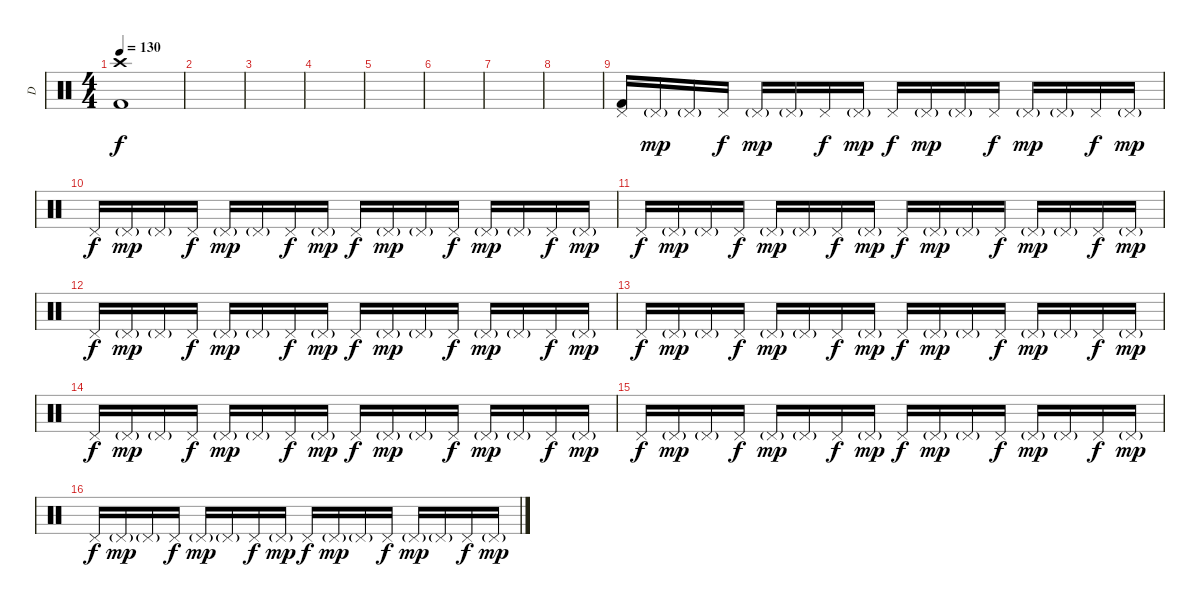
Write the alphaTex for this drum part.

\track ("D" "D") {instrument percussion}
\staff {score}
\articulation defaults
\ts (4 4)
\tempo 130
\clef neutral
\ks c
("Crash high (hit)" "Kick (hit) 2").1{dy f} |
|
|
|
|
|
|
|
("Kick (hit) 2" "Pedal Hi-Hat (hit)").16 "Pedal Hi-Hat (hit)"{g}.16{dy mp} "Pedal Hi-Hat (hit)"{g}.16 "Pedal Hi-Hat (hit)".16{dy f} "Pedal Hi-Hat (hit)"{g}.16{dy mp} "Pedal Hi-Hat (hit)"{g}.16 "Pedal Hi-Hat (hit)".16{dy f} "Pedal Hi-Hat (hit)"{g}.16{dy mp} "Pedal Hi-Hat (hit)".16{dy f} "Pedal Hi-Hat (hit)"{g}.16{dy mp} "Pedal Hi-Hat (hit)"{g}.16 "Pedal Hi-Hat (hit)".16{dy f} "Pedal Hi-Hat (hit)"{g}.16{dy mp} "Pedal Hi-Hat (hit)"{g}.16 "Pedal Hi-Hat (hit)".16{dy f} "Pedal Hi-Hat (hit)"{g}.16{dy mp} |
"Pedal Hi-Hat (hit)".16{dy f} "Pedal Hi-Hat (hit)"{g}.16{dy mp} "Pedal Hi-Hat (hit)"{g}.16 "Pedal Hi-Hat (hit)".16{dy f} "Pedal Hi-Hat (hit)"{g}.16{dy mp} "Pedal Hi-Hat (hit)"{g}.16 "Pedal Hi-Hat (hit)".16{dy f} "Pedal Hi-Hat (hit)"{g}.16{dy mp} "Pedal Hi-Hat (hit)".16{dy f} "Pedal Hi-Hat (hit)"{g}.16{dy mp} "Pedal Hi-Hat (hit)"{g}.16 "Pedal Hi-Hat (hit)".16{dy f} "Pedal Hi-Hat (hit)"{g}.16{dy mp} "Pedal Hi-Hat (hit)"{g}.16 "Pedal Hi-Hat (hit)".16{dy f} "Pedal Hi-Hat (hit)"{g}.16{dy mp} |
"Pedal Hi-Hat (hit)".16{dy f} "Pedal Hi-Hat (hit)"{g}.16{dy mp} "Pedal Hi-Hat (hit)"{g}.16 "Pedal Hi-Hat (hit)".16{dy f} "Pedal Hi-Hat (hit)"{g}.16{dy mp} "Pedal Hi-Hat (hit)"{g}.16 "Pedal Hi-Hat (hit)".16{dy f} "Pedal Hi-Hat (hit)"{g}.16{dy mp} "Pedal Hi-Hat (hit)".16{dy f} "Pedal Hi-Hat (hit)"{g}.16{dy mp} "Pedal Hi-Hat (hit)"{g}.16 "Pedal Hi-Hat (hit)".16{dy f} "Pedal Hi-Hat (hit)"{g}.16{dy mp} "Pedal Hi-Hat (hit)"{g}.16 "Pedal Hi-Hat (hit)".16{dy f} "Pedal Hi-Hat (hit)"{g}.16{dy mp} |
"Pedal Hi-Hat (hit)".16{dy f} "Pedal Hi-Hat (hit)"{g}.16{dy mp} "Pedal Hi-Hat (hit)"{g}.16 "Pedal Hi-Hat (hit)".16{dy f} "Pedal Hi-Hat (hit)"{g}.16{dy mp} "Pedal Hi-Hat (hit)"{g}.16 "Pedal Hi-Hat (hit)".16{dy f} "Pedal Hi-Hat (hit)"{g}.16{dy mp} "Pedal Hi-Hat (hit)".16{dy f} "Pedal Hi-Hat (hit)"{g}.16{dy mp} "Pedal Hi-Hat (hit)"{g}.16 "Pedal Hi-Hat (hit)".16{dy f} "Pedal Hi-Hat (hit)"{g}.16{dy mp} "Pedal Hi-Hat (hit)"{g}.16 "Pedal Hi-Hat (hit)".16{dy f} "Pedal Hi-Hat (hit)"{g}.16{dy mp} |
"Pedal Hi-Hat (hit)".16{dy f} "Pedal Hi-Hat (hit)"{g}.16{dy mp} "Pedal Hi-Hat (hit)"{g}.16 "Pedal Hi-Hat (hit)".16{dy f} "Pedal Hi-Hat (hit)"{g}.16{dy mp} "Pedal Hi-Hat (hit)"{g}.16 "Pedal Hi-Hat (hit)".16{dy f} "Pedal Hi-Hat (hit)"{g}.16{dy mp} "Pedal Hi-Hat (hit)".16{dy f} "Pedal Hi-Hat (hit)"{g}.16{dy mp} "Pedal Hi-Hat (hit)"{g}.16 "Pedal Hi-Hat (hit)".16{dy f} "Pedal Hi-Hat (hit)"{g}.16{dy mp} "Pedal Hi-Hat (hit)"{g}.16 "Pedal Hi-Hat (hit)".16{dy f} "Pedal Hi-Hat (hit)"{g}.16{dy mp} |
"Pedal Hi-Hat (hit)".16{dy f} "Pedal Hi-Hat (hit)"{g}.16{dy mp} "Pedal Hi-Hat (hit)"{g}.16 "Pedal Hi-Hat (hit)".16{dy f} "Pedal Hi-Hat (hit)"{g}.16{dy mp} "Pedal Hi-Hat (hit)"{g}.16 "Pedal Hi-Hat (hit)".16{dy f} "Pedal Hi-Hat (hit)"{g}.16{dy mp} "Pedal Hi-Hat (hit)".16{dy f} "Pedal Hi-Hat (hit)"{g}.16{dy mp} "Pedal Hi-Hat (hit)"{g}.16 "Pedal Hi-Hat (hit)".16{dy f} "Pedal Hi-Hat (hit)"{g}.16{dy mp} "Pedal Hi-Hat (hit)"{g}.16 "Pedal Hi-Hat (hit)".16{dy f} "Pedal Hi-Hat (hit)"{g}.16{dy mp} |
"Pedal Hi-Hat (hit)".16{dy f} "Pedal Hi-Hat (hit)"{g}.16{dy mp} "Pedal Hi-Hat (hit)"{g}.16 "Pedal Hi-Hat (hit)".16{dy f} "Pedal Hi-Hat (hit)"{g}.16{dy mp} "Pedal Hi-Hat (hit)"{g}.16 "Pedal Hi-Hat (hit)".16{dy f} "Pedal Hi-Hat (hit)"{g}.16{dy mp} "Pedal Hi-Hat (hit)".16{dy f} "Pedal Hi-Hat (hit)"{g}.16{dy mp} "Pedal Hi-Hat (hit)"{g}.16 "Pedal Hi-Hat (hit)".16{dy f} "Pedal Hi-Hat (hit)"{g}.16{dy mp} "Pedal Hi-Hat (hit)"{g}.16 "Pedal Hi-Hat (hit)".16{dy f} "Pedal Hi-Hat (hit)"{g}.16{dy mp} |
"Pedal Hi-Hat (hit)".16{dy f} "Pedal Hi-Hat (hit)"{g}.16{dy mp} "Pedal Hi-Hat (hit)"{g}.16 "Pedal Hi-Hat (hit)".16{dy f} "Pedal Hi-Hat (hit)"{g}.16{dy mp} "Pedal Hi-Hat (hit)"{g}.16 "Pedal Hi-Hat (hit)".16{dy f} "Pedal Hi-Hat (hit)"{g}.16{dy mp} "Pedal Hi-Hat (hit)".16{dy f} "Pedal Hi-Hat (hit)"{g}.16{dy mp} "Pedal Hi-Hat (hit)"{g}.16 "Pedal Hi-Hat (hit)".16{dy f} "Pedal Hi-Hat (hit)"{g}.16{dy mp} "Pedal Hi-Hat (hit)"{g}.16 "Pedal Hi-Hat (hit)".16{dy f} "Pedal Hi-Hat (hit)"{g}.16{dy mp}
